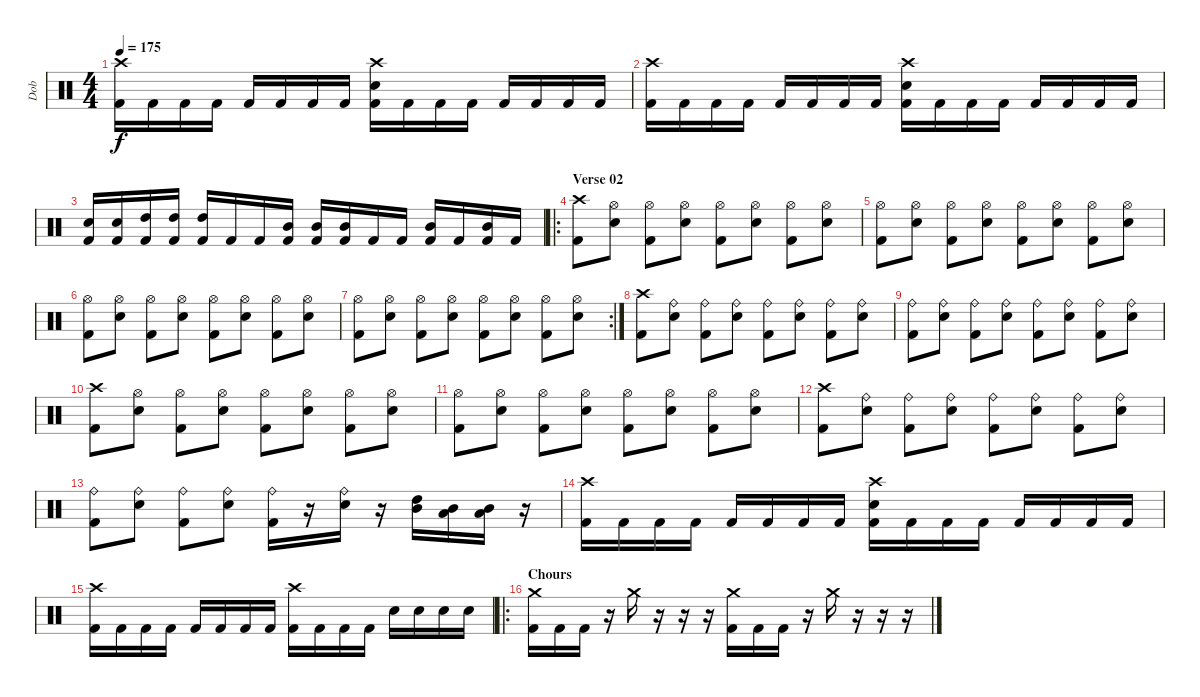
\track ("Dob" "Dob") {instrument percussion}
\staff {score}
\articulation defaults
\ts (4 4)
\tempo 175
\clef neutral
\ks c
("Crash high (hit)" "Kick (hit) 2").16{dy f} "Kick (hit) 2".16 "Kick (hit) 2".16 "Kick (hit) 2".16 "Kick (hit) 2".16 "Kick (hit) 2".16 "Kick (hit) 2".16 "Kick (hit) 2".16 ("Crash high (hit)" "Snare (hit) 2" "Kick (hit) 2").16 "Kick (hit) 2".16 "Kick (hit) 2".16 "Kick (hit) 2".16 "Kick (hit) 2".16 "Kick (hit) 2".16 "Kick (hit) 2".16 "Kick (hit) 2".16 |
("Crash high (hit)" "Kick (hit) 2").16 "Kick (hit) 2".16 "Kick (hit) 2".16 "Kick (hit) 2".16 "Kick (hit) 2".16 "Kick (hit) 2".16 "Kick (hit) 2".16 "Kick (hit) 2".16 ("Crash high (hit)" "Snare (hit) 2" "Kick (hit) 2").16 "Kick (hit) 2".16 "Kick (hit) 2".16 "Kick (hit) 2".16 "Kick (hit) 2".16 "Kick (hit) 2".16 "Kick (hit) 2".16 "Kick (hit) 2".16 |
("Snare (hit) 2" "Kick (hit) 2").16 ("Snare (hit) 2" "Kick (hit) 2").16 ("High Tom (hit)" "Kick (hit) 2").16 ("High Tom (hit)" "Kick (hit) 2").16 ("High Tom (hit)" "Kick (hit) 2").16 "Kick (hit) 2".16 "Kick (hit) 2".16 ("Mid Tom (hit)" "Kick (hit) 2").16 ("Mid Tom (hit)" "Kick (hit) 2").16 ("Mid Tom (hit)" "Kick (hit) 2").16 "Kick (hit) 2".16 "Kick (hit) 2".16 ("Mid Tom (hit)" "Kick (hit) 2").16 "Kick (hit) 2".16 ("Mid Tom (hit)" "Kick (hit) 2").16 "Kick (hit) 2".16 |
\ro
\section ("" "Verse 02")
("Crash high (hit)" "Kick (hit) 2").8 ("Hi-Hat (open)" "Snare (hit) 2").8 ("Hi-Hat (open)" "Kick (hit) 2").8 ("Hi-Hat (open)" "Snare (hit) 2").8 ("Hi-Hat (open)" "Kick (hit) 2").8 ("Hi-Hat (open)" "Snare (hit) 2").8 ("Hi-Hat (open)" "Kick (hit) 2").8 ("Hi-Hat (open)" "Snare (hit) 2").8 |
("Hi-Hat (open)" "Kick (hit) 2").8 ("Hi-Hat (open)" "Snare (hit) 2").8 ("Hi-Hat (open)" "Kick (hit) 2").8 ("Hi-Hat (open)" "Snare (hit) 2").8 ("Hi-Hat (open)" "Kick (hit) 2").8 ("Hi-Hat (open)" "Snare (hit) 2").8 ("Hi-Hat (open)" "Kick (hit) 2").8 ("Hi-Hat (open)" "Snare (hit) 2").8 |
("Hi-Hat (open)" "Kick (hit) 2").8 ("Hi-Hat (open)" "Snare (hit) 2").8 ("Hi-Hat (open)" "Kick (hit) 2").8 ("Hi-Hat (open)" "Snare (hit) 2").8 ("Hi-Hat (open)" "Kick (hit) 2").8 ("Hi-Hat (open)" "Snare (hit) 2").8 ("Hi-Hat (open)" "Kick (hit) 2").8 ("Hi-Hat (open)" "Snare (hit) 2").8 |
\rc 2
("Hi-Hat (open)" "Kick (hit) 2").8 ("Hi-Hat (open)" "Snare (hit) 2").8 ("Hi-Hat (open)" "Kick (hit) 2").8 ("Hi-Hat (open)" "Snare (hit) 2").8 ("Hi-Hat (open)" "Kick (hit) 2").8 ("Hi-Hat (open)" "Snare (hit) 2").8 ("Hi-Hat (open)" "Kick (hit) 2").8 ("Hi-Hat (open)" "Snare (hit) 2").8 |
("Crash high (hit)" "Kick (hit) 2").8 ("Ride (bell)" "Snare (hit) 2").8 ("Ride (bell)" "Kick (hit) 2").8 ("Ride (bell)" "Snare (hit) 2").8 ("Ride (bell)" "Kick (hit) 2").8 ("Ride (bell)" "Snare (hit) 2").8 ("Ride (bell)" "Kick (hit) 2").8 ("Ride (bell)" "Snare (hit) 2").8 |
("Ride (bell)" "Kick (hit) 2").8 ("Ride (bell)" "Snare (hit) 2").8 ("Ride (bell)" "Kick (hit) 2").8 ("Ride (bell)" "Snare (hit) 2").8 ("Ride (bell)" "Kick (hit) 2").8 ("Ride (bell)" "Snare (hit) 2").8 ("Ride (bell)" "Kick (hit) 2").8 ("Ride (bell)" "Snare (hit) 2").8 |
("Crash high (hit)" "Kick (hit) 2").8 ("Hi-Hat (open)" "Snare (hit) 2").8 ("Hi-Hat (open)" "Kick (hit) 2").8 ("Hi-Hat (open)" "Snare (hit) 2").8 ("Hi-Hat (open)" "Kick (hit) 2").8 ("Hi-Hat (open)" "Snare (hit) 2").8 ("Hi-Hat (open)" "Kick (hit) 2").8 ("Hi-Hat (open)" "Snare (hit) 2").8 |
("Hi-Hat (open)" "Kick (hit) 2").8 ("Hi-Hat (open)" "Snare (hit) 2").8 ("Hi-Hat (open)" "Kick (hit) 2").8 ("Hi-Hat (open)" "Snare (hit) 2").8 ("Hi-Hat (open)" "Kick (hit) 2").8 ("Hi-Hat (open)" "Snare (hit) 2").8 ("Hi-Hat (open)" "Kick (hit) 2").8 ("Hi-Hat (open)" "Snare (hit) 2").8 |
("Crash high (hit)" "Kick (hit) 2").8 ("Ride (bell)" "Snare (hit) 2").8 ("Ride (bell)" "Kick (hit) 2").8 ("Ride (bell)" "Snare (hit) 2").8 ("Ride (bell)" "Kick (hit) 2").8 ("Ride (bell)" "Snare (hit) 2").8 ("Ride (bell)" "Kick (hit) 2").8 ("Ride (bell)" "Snare (hit) 2").8 |
("Ride (bell)" "Kick (hit) 2").8 ("Ride (bell)" "Snare (hit) 2").8 ("Ride (bell)" "Kick (hit) 2").8 ("Ride (bell)" "Snare (hit) 2").8 ("Ride (bell)" "Kick (hit) 2").16 r.16 ("Ride (bell)" "Snare (hit) 2").16 r.16 ("Mid Tom (hit)" "High Tom (hit)").16 ("Low Tom (hit)" "Mid Tom (hit)").16 ("Low Tom (hit)" "Mid Tom (hit)").16 r.16 |
("Crash high (hit)" "Kick (hit) 2").16 "Kick (hit) 2".16 "Kick (hit) 2".16 "Kick (hit) 2".16 "Kick (hit) 2".16 "Kick (hit) 2".16 "Kick (hit) 2".16 "Kick (hit) 2".16 ("Crash high (hit)" "Snare (hit) 2" "Kick (hit) 2").16 "Kick (hit) 2".16 "Kick (hit) 2".16 "Kick (hit) 2".16 "Kick (hit) 2".16 "Kick (hit) 2".16 "Kick (hit) 2".16 "Kick (hit) 2".16 |
("Crash high (hit)" "Kick (hit) 2").16 "Kick (hit) 2".16 "Kick (hit) 2".16 "Kick (hit) 2".16 "Kick (hit) 2".16 "Kick (hit) 2".16 "Kick (hit) 2".16 "Kick (hit) 2".16 ("Crash high (hit)" "Kick (hit) 2").16 "Kick (hit) 2".16 "Kick (hit) 2".16 "Kick (hit) 2".16 "Snare (hit) 2".16 "Snare (hit) 2".16 "Snare (hit) 2".16 "Snare (hit) 2".16 |
\ro
\section ("" "Chours")
("Crash medium (hit)" "Kick (hit) 2").16 "Kick (hit) 2".16 "Kick (hit) 2".16 r.16 "Crash medium (hit)".16 r.16 r.16 r.16 ("Crash medium (hit)" "Kick (hit) 2").16 "Kick (hit) 2".16 "Kick (hit) 2".16 r.16 "Crash medium (hit)".16 r.16 r.16 r.16
